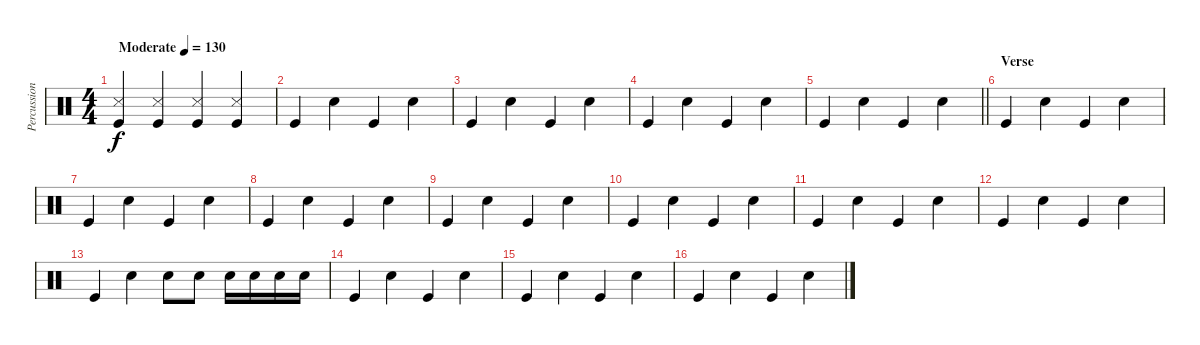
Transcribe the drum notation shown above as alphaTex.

\track ("Percussion" "Percussion") {instrument percussion}
\staff {score}
\articulation defaults
\ts (4 4)
\tempo (130 "Moderate")
\clef neutral
\ks c
("Metronome (hit)" "Kick (hit)").4{dy f} ("Metronome (hit)" "Kick (hit)").4 ("Metronome (hit)" "Kick (hit)").4 ("Metronome (hit)" "Kick (hit)").4 |
"Kick (hit)".4 "Snare (hit) 2".4 "Kick (hit)".4 "Snare (hit) 2".4 |
"Kick (hit)".4 "Snare (hit) 2".4 "Kick (hit)".4 "Snare (hit) 2".4 |
"Kick (hit)".4 "Snare (hit) 2".4 "Kick (hit)".4 "Snare (hit) 2".4 |
\barLineRight lightlight "Kick (hit)".4 "Snare (hit) 2".4 "Kick (hit)".4 "Snare (hit) 2".4
|
\section ("" "Verse")
"Kick (hit)".4 "Snare (hit) 2".4 "Kick (hit)".4 "Snare (hit) 2".4 |
"Kick (hit)".4 "Snare (hit) 2".4 "Kick (hit)".4 "Snare (hit) 2".4 |
"Kick (hit)".4 "Snare (hit) 2".4 "Kick (hit)".4 "Snare (hit) 2".4 |
"Kick (hit)".4 "Snare (hit) 2".4 "Kick (hit)".4 "Snare (hit) 2".4 |
"Kick (hit)".4 "Snare (hit) 2".4 "Kick (hit)".4 "Snare (hit) 2".4 |
"Kick (hit)".4 "Snare (hit) 2".4 "Kick (hit)".4 "Snare (hit) 2".4 |
"Kick (hit)".4 "Snare (hit) 2".4 "Kick (hit)".4 "Snare (hit) 2".4 |
"Kick (hit)".4 "Snare (hit) 2".4 "Snare (hit) 2".8 "Snare (hit) 2".8 "Snare (hit) 2".16 "Snare (hit) 2".16 "Snare (hit) 2".16 "Snare (hit) 2".16 |
"Kick (hit)".4 "Snare (hit) 2".4 "Kick (hit)".4 "Snare (hit) 2".4 |
"Kick (hit)".4 "Snare (hit) 2".4 "Kick (hit)".4 "Snare (hit) 2".4 |
"Kick (hit)".4 "Snare (hit) 2".4 "Kick (hit)".4 "Snare (hit) 2".4
